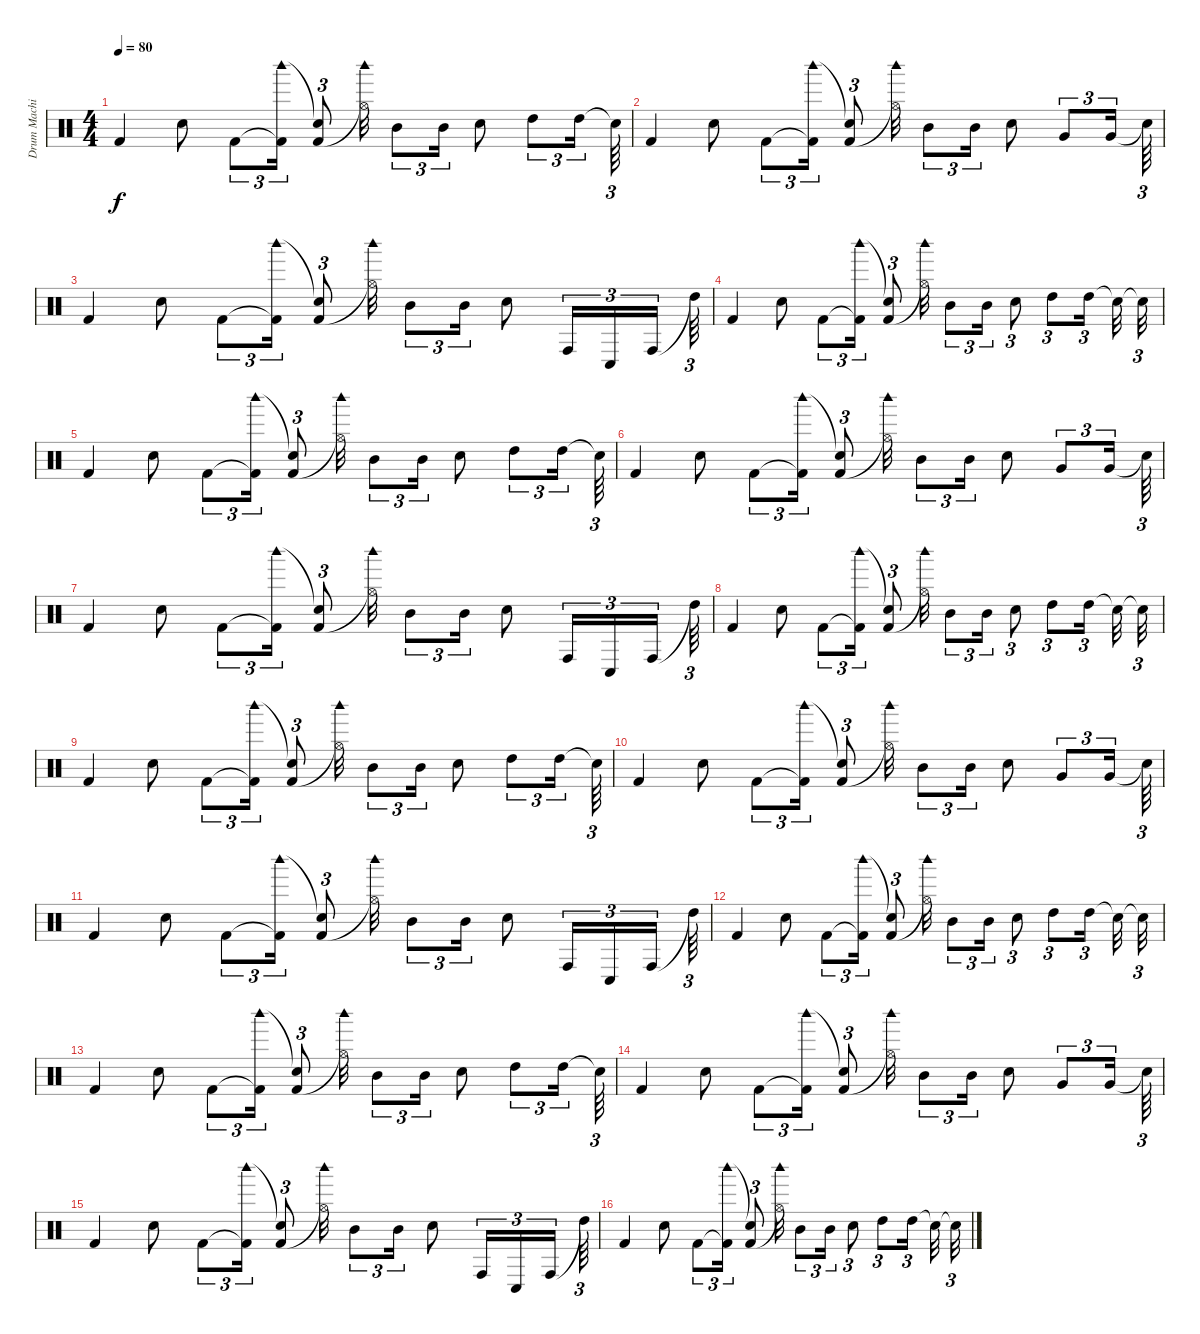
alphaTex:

\track ("Drum Machine" "Drum Machi") {instrument percussion}
\staff {score}
\articulation defaults
\ts (4 4)
\tempo 80
\clef neutral
\ks c "Kick (hit) 2".4{dy f} "Electric Snare (hit)".8 "Kick (hit) 2".8{tu (3 2)}
("Kick (hit) 2"{t} "Woodblock high (hit)").16{tu (3 2)} ("Kick (hit) 2" "Snare (hit)"{t}).8{tu (3 2)} ("Hi-Hat (open)"{t} "Woodblock high (hit)").32 "Mid Tom (hit)".8{tu (3 2)} "Mid Tom (hit)".16{tu (3 2)} "Electric Snare (hit)".8 "High Tom (hit)".8{tu (3 2)} "High Tom (hit)".16{tu (3 2)} "Snare (hit)"{t}.64{tu (3 2)} |
"Kick (hit) 2".4 "Electric Snare (hit)".8 "Kick (hit) 2".8{tu (3 2)} ("Kick (hit) 2"{t} "Woodblock high (hit)").16{tu (3 2)} ("Kick (hit) 2" "Snare (hit)"{t}).8{tu (3 2)} ("Hi-Hat (open)"{t} "Woodblock high (hit)").32 "Mid Tom (hit)".8{tu (3 2)} "Mid Tom (hit)".16{tu (3 2)} "Electric Snare (hit)".8 "Very Low Tom (hit)".8{tu (3 2)} "Very Low Tom (hit)".16{tu (3 2)} "Snare (hit)"{t}.64{tu (3 2)} |
"Kick (hit) 2".4 "Electric Snare (hit)".8 "Kick (hit) 2".8{tu (3 2)} ("Kick (hit) 2"{t} "Woodblock high (hit)").16{tu (3 2)} ("Kick (hit) 2" "Snare (hit)"{t}).8{tu (3 2)} ("Hi-Hat (open)"{t} "Woodblock high (hit)").32 "Mid Tom (hit)".8{tu (3 2)} "Mid Tom (hit)".16{tu (3 2)} "Electric Snare (hit)".8 "Conga high (hit)".16{tu (3 2)} "Conga low (hit)".16{tu (3 2)} "Conga high (hit)".16{tu (3 2) beam splitsecondary} "High Tom (hit)"{t}.64{tu (3 2)} |
"Kick (hit) 2".4 "Electric Snare (hit)".8 "Kick (hit) 2".8{tu (3 2)} ("Kick (hit) 2"{t} "Woodblock high (hit)").16{tu (3 2)} ("Kick (hit) 2" "Snare (hit)"{t}).8{tu (3 2)} ("Hi-Hat (open)"{t} "Woodblock high (hit)").32 "Mid Tom (hit)".8{tu (3 2)} "Mid Tom (hit)".16{tu (3 2)} "Electric Snare (hit)".8{tu (3 2)} "High Tom (hit)".8{tu (3 2)} "High Tom (hit)".16{tu (3 2) beam splitsecondary} "Snare (hit)"{t}.32 "Snare (hit)"{t}.32{tu (3 2)} |
"Kick (hit) 2".4 "Electric Snare (hit)".8 "Kick (hit) 2".8{tu (3 2)} ("Kick (hit) 2"{t} "Woodblock high (hit)").16{tu (3 2)} ("Kick (hit) 2" "Snare (hit)"{t}).8{tu (3 2)} ("Hi-Hat (open)"{t} "Woodblock high (hit)").32 "Mid Tom (hit)".8{tu (3 2)} "Mid Tom (hit)".16{tu (3 2)} "Electric Snare (hit)".8 "High Tom (hit)".8{tu (3 2)} "High Tom (hit)".16{tu (3 2)} "Snare (hit)"{t}.64{tu (3 2)} |
"Kick (hit) 2".4 "Electric Snare (hit)".8 "Kick (hit) 2".8{tu (3 2)} ("Kick (hit) 2"{t} "Woodblock high (hit)").16{tu (3 2)} ("Kick (hit) 2" "Snare (hit)"{t}).8{tu (3 2)} ("Hi-Hat (open)"{t} "Woodblock high (hit)").32 "Mid Tom (hit)".8{tu (3 2)} "Mid Tom (hit)".16{tu (3 2)} "Electric Snare (hit)".8 "Very Low Tom (hit)".8{tu (3 2)} "Very Low Tom (hit)".16{tu (3 2)} "Snare (hit)"{t}.64{tu (3 2)} |
"Kick (hit) 2".4 "Electric Snare (hit)".8 "Kick (hit) 2".8{tu (3 2)} ("Kick (hit) 2"{t} "Woodblock high (hit)").16{tu (3 2)} ("Kick (hit) 2" "Snare (hit)"{t}).8{tu (3 2)} ("Hi-Hat (open)"{t} "Woodblock high (hit)").32 "Mid Tom (hit)".8{tu (3 2)} "Mid Tom (hit)".16{tu (3 2)} "Electric Snare (hit)".8 "Conga high (hit)".16{tu (3 2)} "Conga low (hit)".16{tu (3 2)} "Conga high (hit)".16{tu (3 2) beam splitsecondary} "High Tom (hit)"{t}.64{tu (3 2)} |
"Kick (hit) 2".4 "Electric Snare (hit)".8 "Kick (hit) 2".8{tu (3 2)} ("Kick (hit) 2"{t} "Woodblock high (hit)").16{tu (3 2)} ("Kick (hit) 2" "Snare (hit)"{t}).8{tu (3 2)} ("Hi-Hat (open)"{t} "Woodblock high (hit)").32 "Mid Tom (hit)".8{tu (3 2)} "Mid Tom (hit)".16{tu (3 2)} "Electric Snare (hit)".8{tu (3 2)} "High Tom (hit)".8{tu (3 2)} "High Tom (hit)".16{tu (3 2) beam splitsecondary} "Snare (hit)"{t}.32 "Snare (hit)"{t}.32{tu (3 2)} |
"Kick (hit) 2".4 "Electric Snare (hit)".8 "Kick (hit) 2".8{tu (3 2)} ("Kick (hit) 2"{t} "Woodblock high (hit)").16{tu (3 2)} ("Kick (hit) 2" "Snare (hit)"{t}).8{tu (3 2)} ("Hi-Hat (open)"{t} "Woodblock high (hit)").32 "Mid Tom (hit)".8{tu (3 2)} "Mid Tom (hit)".16{tu (3 2)} "Electric Snare (hit)".8 "High Tom (hit)".8{tu (3 2)} "High Tom (hit)".16{tu (3 2)} "Snare (hit)"{t}.64{tu (3 2)} |
"Kick (hit) 2".4 "Electric Snare (hit)".8 "Kick (hit) 2".8{tu (3 2)} ("Kick (hit) 2"{t} "Woodblock high (hit)").16{tu (3 2)} ("Kick (hit) 2" "Snare (hit)"{t}).8{tu (3 2)} ("Hi-Hat (open)"{t} "Woodblock high (hit)").32 "Mid Tom (hit)".8{tu (3 2)} "Mid Tom (hit)".16{tu (3 2)} "Electric Snare (hit)".8 "Very Low Tom (hit)".8{tu (3 2)} "Very Low Tom (hit)".16{tu (3 2)} "Snare (hit)"{t}.64{tu (3 2)} |
"Kick (hit) 2".4 "Electric Snare (hit)".8 "Kick (hit) 2".8{tu (3 2)} ("Kick (hit) 2"{t} "Woodblock high (hit)").16{tu (3 2)} ("Kick (hit) 2" "Snare (hit)"{t}).8{tu (3 2)} ("Hi-Hat (open)"{t} "Woodblock high (hit)").32 "Mid Tom (hit)".8{tu (3 2)} "Mid Tom (hit)".16{tu (3 2)} "Electric Snare (hit)".8 "Conga high (hit)".16{tu (3 2)} "Conga low (hit)".16{tu (3 2)} "Conga high (hit)".16{tu (3 2) beam splitsecondary} "High Tom (hit)"{t}.64{tu (3 2)} |
"Kick (hit) 2".4 "Electric Snare (hit)".8 "Kick (hit) 2".8{tu (3 2)} ("Kick (hit) 2"{t} "Woodblock high (hit)").16{tu (3 2)} ("Kick (hit) 2" "Snare (hit)"{t}).8{tu (3 2)} ("Hi-Hat (open)"{t} "Woodblock high (hit)").32 "Mid Tom (hit)".8{tu (3 2)} "Mid Tom (hit)".16{tu (3 2)} "Electric Snare (hit)".8{tu (3 2)} "High Tom (hit)".8{tu (3 2)} "High Tom (hit)".16{tu (3 2) beam splitsecondary} "Snare (hit)"{t}.32 "Snare (hit)"{t}.32{tu (3 2)} |
"Kick (hit) 2".4 "Electric Snare (hit)".8 "Kick (hit) 2".8{tu (3 2)} ("Kick (hit) 2"{t} "Woodblock high (hit)").16{tu (3 2)} ("Kick (hit) 2" "Snare (hit)"{t}).8{tu (3 2)} ("Hi-Hat (open)"{t} "Woodblock high (hit)").32 "Mid Tom (hit)".8{tu (3 2)} "Mid Tom (hit)".16{tu (3 2)} "Electric Snare (hit)".8 "High Tom (hit)".8{tu (3 2)} "High Tom (hit)".16{tu (3 2)} "Snare (hit)"{t}.64{tu (3 2)} |
"Kick (hit) 2".4 "Electric Snare (hit)".8 "Kick (hit) 2".8{tu (3 2)} ("Kick (hit) 2"{t} "Woodblock high (hit)").16{tu (3 2)} ("Kick (hit) 2" "Snare (hit)"{t}).8{tu (3 2)} ("Hi-Hat (open)"{t} "Woodblock high (hit)").32 "Mid Tom (hit)".8{tu (3 2)} "Mid Tom (hit)".16{tu (3 2)} "Electric Snare (hit)".8 "Very Low Tom (hit)".8{tu (3 2)} "Very Low Tom (hit)".16{tu (3 2)} "Snare (hit)"{t}.64{tu (3 2)} |
"Kick (hit) 2".4 "Electric Snare (hit)".8 "Kick (hit) 2".8{tu (3 2)} ("Kick (hit) 2"{t} "Woodblock high (hit)").16{tu (3 2)} ("Kick (hit) 2" "Snare (hit)"{t}).8{tu (3 2)} ("Hi-Hat (open)"{t} "Woodblock high (hit)").32 "Mid Tom (hit)".8{tu (3 2)} "Mid Tom (hit)".16{tu (3 2)} "Electric Snare (hit)".8 "Conga high (hit)".16{tu (3 2)} "Conga low (hit)".16{tu (3 2)} "Conga high (hit)".16{tu (3 2) beam splitsecondary} "High Tom (hit)"{t}.64{tu (3 2)} |
"Kick (hit) 2".4 "Electric Snare (hit)".8 "Kick (hit) 2".8{tu (3 2)} ("Kick (hit) 2"{t} "Woodblock high (hit)").16{tu (3 2)} ("Kick (hit) 2" "Snare (hit)"{t}).8{tu (3 2)} ("Hi-Hat (open)"{t} "Woodblock high (hit)").32 "Mid Tom (hit)".8{tu (3 2)} "Mid Tom (hit)".16{tu (3 2)} "Electric Snare (hit)".8{tu (3 2)} "High Tom (hit)".8{tu (3 2)} "High Tom (hit)".16{tu (3 2) beam splitsecondary} "Snare (hit)"{t}.32 "Snare (hit)"{t}.32{tu (3 2)}
